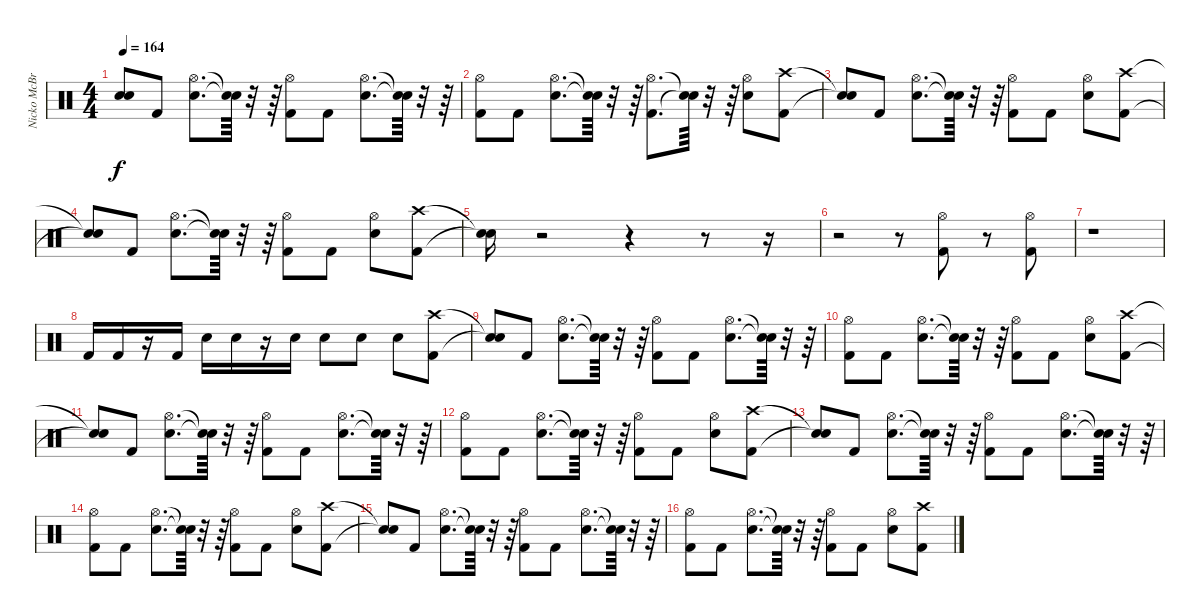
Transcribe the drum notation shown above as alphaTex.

\track ("Nicko McBrian (Drums)" "Nicko McBr") {instrument percussion}
\staff {score}
\articulation defaults
\ts (4 4)
\tempo 164
\clef neutral
\ks c
("Snare (hit)"{t} "Snare (hit)"{t}).8{dy f} "Kick (hit) 2".8 ("Snare (hit) 2" "Hi-Hat (open)").8{d} ("Snare (hit)"{t} "Snare (hit)"{t}).64 r.32 r.64 ("Kick (hit) 2" "Hi-Hat (open)").8 "Kick (hit) 2".8 ("Snare (hit) 2" "Hi-Hat (open)").8{d} ("Snare (hit)"{t} "Snare (hit)"{t}).64 r.32 r.64 |
("Kick (hit) 2" "Hi-Hat (open)").8 "Kick (hit) 2".8 ("Snare (hit) 2" "Hi-Hat (open)").8{d} ("Snare (hit)"{t} "Snare (hit)"{t}).64 r.32 r.64 ("Kick (hit) 2" "Hi-Hat (open)").8{d} ("Snare (hit)"{t} "Snare (hit)"{t}).64 r.32 r.64 ("Snare (hit) 2" "Hi-Hat (open)").8 ("Kick (hit) 2" "Crash high (hit)").8 |
("Snare (hit)"{t} "Snare (hit)"{t}).8 "Kick (hit) 2".8 ("Snare (hit) 2" "Hi-Hat (open)").8{d} ("Snare (hit)"{t} "Snare (hit)"{t}).64 r.32 r.64 ("Kick (hit) 2" "Hi-Hat (open)").8 "Kick (hit) 2".8 ("Snare (hit) 2" "Hi-Hat (open)").8 ("Kick (hit) 2" "Crash high (hit)").8 |
("Snare (hit)"{t} "Snare (hit)"{t}).8 "Kick (hit) 2".8 ("Snare (hit) 2" "Hi-Hat (open)").8{d} ("Snare (hit)"{t} "Snare (hit)"{t}).64 r.32 r.64 ("Kick (hit) 2" "Hi-Hat (open)").8 "Kick (hit) 2".8 ("Snare (hit) 2" "Hi-Hat (open)").8 ("Kick (hit) 2" "Crash high (hit)").8 |
("Snare (hit)"{t} "Snare (hit)"{t}).16 r.2 r.4 r.8 r.16 |
r.2 r.8 ("Kick (hit) 2" "Hi-Hat (open)").8 r.8 ("Kick (hit) 2" "Hi-Hat (open)").8 |
r.1 |
"Kick (hit) 2".16 "Kick (hit) 2".16 r.16 "Kick (hit) 2".16 "Snare (hit) 2".16 "Snare (hit) 2".16 r.16 "Snare (hit) 2".16 "Snare (hit) 2".8 "Snare (hit) 2".8 "Snare (hit) 2".8 ("Kick (hit) 2" "Crash high (hit)").8 |
("Snare (hit)"{t} "Snare (hit)"{t}).8 "Kick (hit) 2".8 ("Snare (hit) 2" "Hi-Hat (open)").8{d} ("Snare (hit)"{t} "Snare (hit)"{t}).64 r.32 r.64 ("Kick (hit) 2" "Hi-Hat (open)").8 "Kick (hit) 2".8 ("Snare (hit) 2" "Hi-Hat (open)").8{d} ("Snare (hit)"{t} "Snare (hit)"{t}).64 r.32 r.64 |
("Kick (hit) 2" "Hi-Hat (open)").8 "Kick (hit) 2".8 ("Snare (hit) 2" "Hi-Hat (open)").8{d} ("Snare (hit)"{t} "Snare (hit)"{t}).64 r.32 r.64 ("Kick (hit) 2" "Hi-Hat (open)").8 "Kick (hit) 2".8 ("Snare (hit) 2" "Hi-Hat (open)").8 ("Kick (hit) 2" "Crash high (hit)").8 |
("Snare (hit)"{t} "Snare (hit)"{t}).8 "Kick (hit) 2".8 ("Snare (hit) 2" "Hi-Hat (open)").8{d} ("Snare (hit)"{t} "Snare (hit)"{t}).64 r.32 r.64 ("Kick (hit) 2" "Hi-Hat (open)").8 "Kick (hit) 2".8 ("Snare (hit) 2" "Hi-Hat (open)").8{d} ("Snare (hit)"{t} "Snare (hit)"{t}).64 r.32 r.64 |
("Kick (hit) 2" "Hi-Hat (open)").8 "Kick (hit) 2".8 ("Snare (hit) 2" "Hi-Hat (open)").8{d} ("Snare (hit)"{t} "Snare (hit)"{t}).64 r.32 r.64 ("Kick (hit) 2" "Hi-Hat (open)").8 "Kick (hit) 2".8 ("Snare (hit) 2" "Hi-Hat (open)").8 ("Kick (hit) 2" "Crash high (hit)").8 |
("Snare (hit)"{t} "Snare (hit)"{t}).8 "Kick (hit) 2".8 ("Snare (hit) 2" "Hi-Hat (open)").8{d} ("Snare (hit)"{t} "Snare (hit)"{t}).64 r.32 r.64 ("Kick (hit) 2" "Hi-Hat (open)").8 "Kick (hit) 2".8 ("Snare (hit) 2" "Hi-Hat (open)").8{d} ("Snare (hit)"{t} "Snare (hit)"{t}).64 r.32 r.64 |
("Kick (hit) 2" "Hi-Hat (open)").8 "Kick (hit) 2".8 ("Snare (hit) 2" "Hi-Hat (open)").8{d} ("Snare (hit)"{t} "Snare (hit)"{t}).64 r.32 r.64 ("Kick (hit) 2" "Hi-Hat (open)").8 "Kick (hit) 2".8 ("Snare (hit) 2" "Hi-Hat (open)").8 ("Kick (hit) 2" "Crash high (hit)").8 |
("Snare (hit)"{t} "Snare (hit)"{t}).8 "Kick (hit) 2".8 ("Snare (hit) 2" "Hi-Hat (open)").8{d} ("Snare (hit)"{t} "Snare (hit)"{t}).64 r.32 r.64 ("Kick (hit) 2" "Hi-Hat (open)").8 "Kick (hit) 2".8 ("Snare (hit) 2" "Hi-Hat (open)").8{d} ("Snare (hit)"{t} "Snare (hit)"{t}).64 r.32 r.64 |
("Kick (hit) 2" "Hi-Hat (open)").8 "Kick (hit) 2".8 ("Snare (hit) 2" "Hi-Hat (open)").8{d} ("Snare (hit)"{t} "Snare (hit)"{t}).64 r.32 r.64 ("Kick (hit) 2" "Hi-Hat (open)").8 "Kick (hit) 2".8 ("Snare (hit) 2" "Hi-Hat (open)").8 ("Kick (hit) 2" "Crash high (hit)").8
